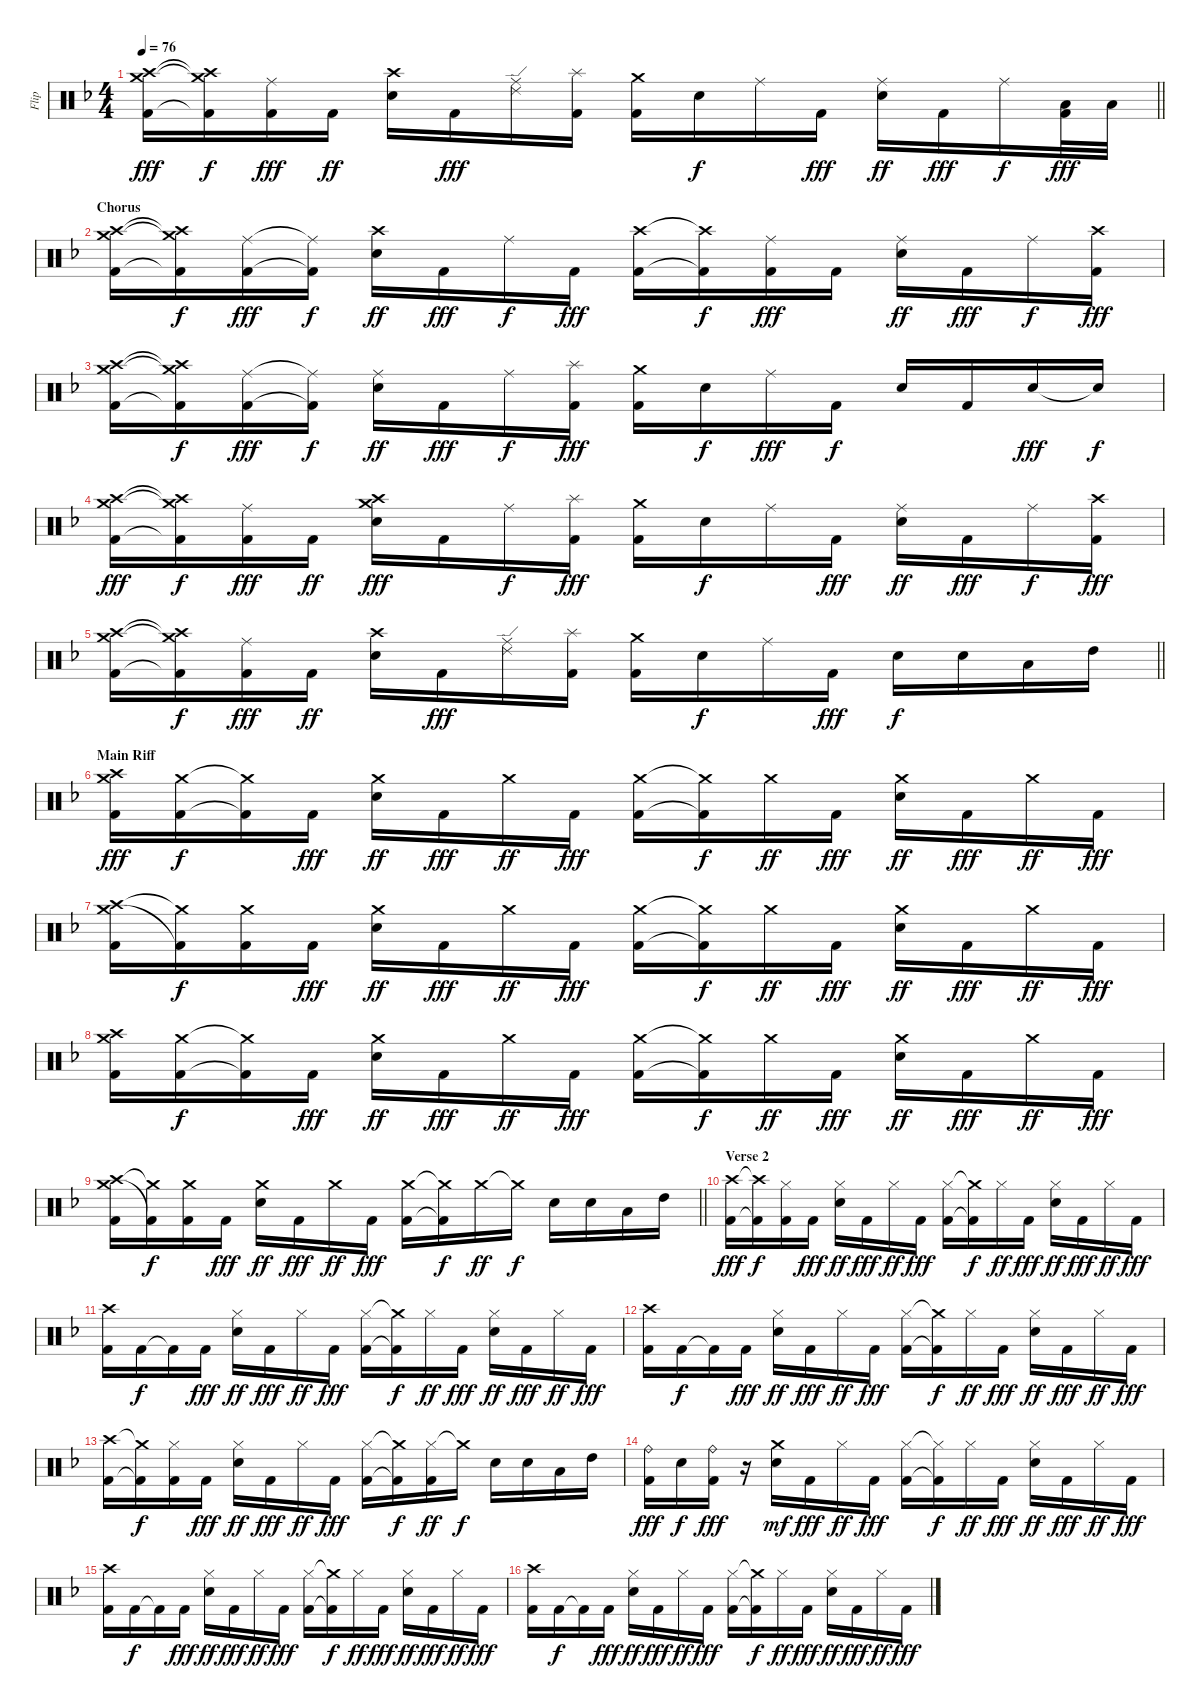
\track ("Flip" "Flip") {instrument percussion}
\staff {score}
\articulation defaults
\ts (4 4)
\tempo 76
\clef neutral
\barLineRight lightlight
\ks f
("Crash medium (hit)" "Crash high (hit)" "Kick (hit) 2").16{dy fff} ("Crash medium (hit)"{t} "Crash high (hit)"{t} "Kick (hit) 2"{t}).16{dy f} ("Ride (middle)" "Kick (hit) 2").16{dy fff} "Kick (hit) 2".16{dy ff} ("Crash high (hit)" "Snare (hit) 2").16 "Kick (hit) 2".16{dy fff} ("Ride (middle)" "Ride (edge) 2").16 ("Splash (hit)" "Kick (hit) 2").16 ("Crash medium (hit)" "Kick (hit) 2").16 "Snare (hit) 2".16{dy f} "Ride (middle)".16 "Kick (hit) 2".16{dy fff} ("Ride (middle)" "Snare (hit) 2").16{dy ff} "Kick (hit) 2".16{dy fff} "Ride (middle)".16{dy f} ("Low Tom (hit)" "Kick (hit) 2").32{dy fff} "Low Tom (hit)".32 |
\section ("" "Chorus")
("Crash medium (hit)" "Crash high (hit)" "Kick (hit) 2").16 ("Crash medium (hit)"{t} "Crash high (hit)"{t} "Kick (hit) 2"{t}).16{dy f} ("Ride (middle)" "Kick (hit) 2").16{dy fff} ("Ride (middle)"{t} "Kick (hit) 2"{t}).16{dy f} ("Crash high (hit)" "Snare (hit) 2").16{dy ff} "Kick (hit) 2".16{dy fff} "Ride (middle)".16{dy f} "Kick (hit) 2".16{dy fff} ("Crash high (hit)" "Kick (hit) 2").16 ("Crash high (hit)"{t} "Kick (hit) 2"{t}).16{dy f} ("Ride (middle)" "Kick (hit) 2").16{dy fff} "Kick (hit) 2".16 ("Ride (middle)" "Snare (hit) 2").16{dy ff} "Kick (hit) 2".16{dy fff} "Ride (middle)".16{dy f} ("Crash high (hit)" "Kick (hit) 2").16{dy fff} |
("Crash medium (hit)" "Crash high (hit)" "Kick (hit) 2").16 ("Crash medium (hit)"{t} "Crash high (hit)"{t} "Kick (hit) 2"{t}).16{dy f} ("Ride (middle)" "Kick (hit) 2").16{dy fff} ("Ride (middle)"{t} "Kick (hit) 2"{t}).16{dy f} ("Ride (middle)" "Snare (hit) 2").16{dy ff} "Kick (hit) 2".16{dy fff} "Ride (middle)".16{dy f} ("Splash (hit)" "Kick (hit) 2").16{dy fff} ("Crash medium (hit)" "Kick (hit) 2").16 "Snare (hit) 2".16{dy f} "Ride (middle)".16{dy fff} "Kick (hit) 2".16{dy f} "Snare (hit) 2".16 "Kick (hit) 2".16 "Snare (hit) 2".16{dy fff} "Snare (hit) 2"{t}.16{dy f} |
("Crash medium (hit)" "Crash high (hit)" "Kick (hit) 2").16{dy fff} ("Crash medium (hit)"{t} "Crash high (hit)"{t} "Kick (hit) 2"{t}).16{dy f} ("Ride (middle)" "Kick (hit) 2").16{dy fff} "Kick (hit) 2".16{dy ff} ("Crash high (hit)" "Crash medium (hit)" "Snare (hit) 2").16{dy fff} "Kick (hit) 2".16 "Ride (middle)".16{dy f} ("Splash (hit)" "Kick (hit) 2").16{dy fff} ("Crash medium (hit)" "Kick (hit) 2").16 "Snare (hit) 2".16{dy f} "Ride (middle)".16 "Kick (hit) 2".16{dy fff} ("Ride (middle)" "Snare (hit) 2").16{dy ff} "Kick (hit) 2".16{dy fff} "Ride (middle)".16{dy f} ("Crash high (hit)" "Kick (hit) 2").16{dy fff} |
\barLineRight lightlight
("Crash medium (hit)" "Crash high (hit)" "Kick (hit) 2").16 ("Crash medium (hit)"{t} "Crash high (hit)"{t} "Kick (hit) 2"{t}).16{dy f} ("Ride (middle)" "Kick (hit) 2").16{dy fff} "Kick (hit) 2".16{dy ff} ("Crash high (hit)" "Snare (hit) 2").16 "Kick (hit) 2".16{dy fff} ("Ride (middle)" "Ride (edge) 2").16 ("Splash (hit)" "Kick (hit) 2").16 ("Crash medium (hit)" "Kick (hit) 2").16 "Snare (hit) 2".16{dy f} "Ride (middle)".16 "Kick (hit) 2".16{dy fff} "Snare (hit) 2".16{dy f} "Snare (hit) 2".16 "Low Tom (hit)".16 "High Tom (hit)".16 |
\section ("" "Main Riff")
("Crash high (hit)" "Crash medium (hit)" "Kick (hit) 2").16{dy fff} ("Crash medium (hit)" "Kick (hit) 2").16{dy f} ("Crash medium (hit)"{t} "Kick (hit) 2"{t}).16 "Kick (hit) 2".16{dy fff} ("Crash medium (hit)" "Snare (hit) 2").16{dy ff} "Kick (hit) 2".16{dy fff} "Crash medium (hit)".16{dy ff} "Kick (hit) 2".16{dy fff} ("Crash medium (hit)" "Kick (hit) 2").16 ("Crash medium (hit)"{t} "Kick (hit) 2"{t}).16{dy f} "Crash medium (hit)".16{dy ff} "Kick (hit) 2".16{dy fff} ("Crash medium (hit)" "Snare (hit) 2").16{dy ff} "Kick (hit) 2".16{dy fff} "Crash medium (hit)".16{dy ff} "Kick (hit) 2".16{dy fff} |
("Crash high (hit)" "Crash medium (hit)" "Kick (hit) 2").16 ("Crash medium (hit)"{t} "Kick (hit) 2"{t}).16{dy f} ("Crash medium (hit)" "Kick (hit) 2").16 "Kick (hit) 2".16{dy fff} ("Crash medium (hit)" "Snare (hit) 2").16{dy ff} "Kick (hit) 2".16{dy fff} "Crash medium (hit)".16{dy ff} "Kick (hit) 2".16{dy fff} ("Crash medium (hit)" "Kick (hit) 2").16 ("Crash medium (hit)"{t} "Kick (hit) 2"{t}).16{dy f} "Crash medium (hit)".16{dy ff} "Kick (hit) 2".16{dy fff} ("Crash medium (hit)" "Snare (hit) 2").16{dy ff} "Kick (hit) 2".16{dy fff} "Crash medium (hit)".16{dy ff} "Kick (hit) 2".16{dy fff} |
("Crash high (hit)" "Crash medium (hit)" "Kick (hit) 2").16 ("Crash medium (hit)" "Kick (hit) 2").16{dy f} ("Crash medium (hit)"{t} "Kick (hit) 2"{t}).16 "Kick (hit) 2".16{dy fff} ("Crash medium (hit)" "Snare (hit) 2").16{dy ff} "Kick (hit) 2".16{dy fff} "Crash medium (hit)".16{dy ff} "Kick (hit) 2".16{dy fff} ("Crash medium (hit)" "Kick (hit) 2").16 ("Crash medium (hit)"{t} "Kick (hit) 2"{t}).16{dy f} "Crash medium (hit)".16{dy ff} "Kick (hit) 2".16{dy fff} ("Crash medium (hit)" "Snare (hit) 2").16{dy ff} "Kick (hit) 2".16{dy fff} "Crash medium (hit)".16{dy ff} "Kick (hit) 2".16{dy fff} |
\barLineRight lightlight
("Crash high (hit)" "Crash medium (hit)" "Kick (hit) 2").16 ("Crash medium (hit)"{t} "Kick (hit) 2"{t}).16{dy f} ("Crash medium (hit)" "Kick (hit) 2").16 "Kick (hit) 2".16{dy fff} ("Crash medium (hit)" "Snare (hit) 2").16{dy ff} "Kick (hit) 2".16{dy fff} "Crash medium (hit)".16{dy ff} "Kick (hit) 2".16{dy fff} ("Crash medium (hit)" "Kick (hit) 2").16 ("Crash medium (hit)"{t} "Kick (hit) 2"{t}).16{dy f} "Crash medium (hit)".16{dy ff} "Crash medium (hit)"{t}.16{dy f} "Snare (hit) 2".16 "Snare (hit) 2".16 "Low Tom (hit)".16 "High Tom (hit)".16 |
\section ("" "Verse 2")
("Crash high (hit)" "Kick (hit) 2").16{dy fff} ("Crash high (hit)"{t} "Kick (hit) 2"{t}).16{dy f} ("Hi-Hat (closed)" "Kick (hit) 2").16 "Kick (hit) 2".16{dy fff} ("Hi-Hat (closed)" "Snare (hit) 2").16{dy ff} "Kick (hit) 2".16{dy fff} "Hi-Hat (closed)".16{dy ff} "Kick (hit) 2".16{dy fff} ("Hi-Hat (closed)" "Kick (hit) 2").16 ("Crash medium (hit)"{t} "Kick (hit) 2"{t}).16{dy f} "Hi-Hat (closed)".16{dy ff} "Kick (hit) 2".16{dy fff} ("Hi-Hat (closed)" "Snare (hit) 2").16{dy ff} "Kick (hit) 2".16{dy fff} "Hi-Hat (closed)".16{dy ff} "Kick (hit) 2".16{dy fff} |
("Crash high (hit)" "Kick (hit) 2").16 "Kick (hit) 2".16{dy f} "Kick (hit) 2"{t}.16 "Kick (hit) 2".16{dy fff} ("Hi-Hat (closed)" "Snare (hit) 2").16{dy ff} "Kick (hit) 2".16{dy fff} "Hi-Hat (closed)".16{dy ff} "Kick (hit) 2".16{dy fff} ("Hi-Hat (closed)" "Kick (hit) 2").16 ("Crash medium (hit)"{t} "Kick (hit) 2"{t}).16{dy f} "Hi-Hat (closed)".16{dy ff} "Kick (hit) 2".16{dy fff} ("Hi-Hat (closed)" "Snare (hit) 2").16{dy ff} "Kick (hit) 2".16{dy fff} "Hi-Hat (closed)".16{dy ff} "Kick (hit) 2".16{dy fff} |
("Crash high (hit)" "Kick (hit) 2").16 "Kick (hit) 2".16{dy f} "Kick (hit) 2"{t}.16 "Kick (hit) 2".16{dy fff} ("Hi-Hat (closed)" "Snare (hit) 2").16{dy ff} "Kick (hit) 2".16{dy fff} "Hi-Hat (closed)".16{dy ff} "Kick (hit) 2".16{dy fff} ("Hi-Hat (closed)" "Kick (hit) 2").16 ("Crash medium (hit)"{t} "Kick (hit) 2"{t}).16{dy f} "Hi-Hat (closed)".16{dy ff} "Kick (hit) 2".16{dy fff} ("Hi-Hat (closed)" "Snare (hit) 2").16{dy ff} "Kick (hit) 2".16{dy fff} "Hi-Hat (closed)".16{dy ff} "Kick (hit) 2".16{dy fff} |
("Crash high (hit)" "Kick (hit) 2").16 ("Crash medium (hit)"{t} "Kick (hit) 2"{t}).16{dy f} ("Hi-Hat (closed)" "Kick (hit) 2").16 "Kick (hit) 2".16{dy fff} ("Hi-Hat (closed)" "Snare (hit) 2").16{dy ff} "Kick (hit) 2".16{dy fff} "Hi-Hat (closed)".16{dy ff} "Kick (hit) 2".16{dy fff} ("Hi-Hat (closed)" "Kick (hit) 2").16 ("Crash medium (hit)"{t} "Kick (hit) 2"{t}).16{dy f} ("Hi-Hat (closed)" "Kick (hit) 2").16{dy ff} "Crash medium (hit)"{t}.16{dy f} "Snare (hit) 2".16 "Snare (hit) 2".16 "Low Tom (hit)".16 "High Tom (hit)".16 |
("Ride (bell)" "Kick (hit) 2").16{dy fff} "Snare (hit) 2".16{dy f} ("Ride (bell)" "Kick (hit) 2").16{dy fff} r.16 ("Crash medium (hit)" "Snare (hit) 2").16{dy mf} "Kick (hit) 2".16{dy fff} "Hi-Hat (closed)".16{dy ff} "Kick (hit) 2".16{dy fff} ("Hi-Hat (closed)" "Kick (hit) 2").16 ("Hi-Hat (closed)"{t} "Kick (hit) 2"{t}).16{dy f} "Hi-Hat (closed)".16{dy ff} "Kick (hit) 2".16{dy fff} ("Hi-Hat (closed)" "Snare (hit) 2").16{dy ff} "Kick (hit) 2".16{dy fff} "Hi-Hat (closed)".16{dy ff} "Kick (hit) 2".16{dy fff} |
("Crash high (hit)" "Kick (hit) 2").16 "Kick (hit) 2".16{dy f} "Kick (hit) 2"{t}.16 "Kick (hit) 2".16{dy fff} ("Hi-Hat (closed)" "Snare (hit) 2").16{dy ff} "Kick (hit) 2".16{dy fff} "Hi-Hat (closed)".16{dy ff} "Kick (hit) 2".16{dy fff} ("Hi-Hat (closed)" "Kick (hit) 2").16 ("Crash medium (hit)"{t} "Kick (hit) 2"{t}).16{dy f} "Hi-Hat (closed)".16{dy ff} "Kick (hit) 2".16{dy fff} ("Hi-Hat (closed)" "Snare (hit) 2").16{dy ff} "Kick (hit) 2".16{dy fff} "Hi-Hat (closed)".16{dy ff} "Kick (hit) 2".16{dy fff} |
("Crash high (hit)" "Kick (hit) 2").16 "Kick (hit) 2".16{dy f} "Kick (hit) 2"{t}.16 "Kick (hit) 2".16{dy fff} ("Hi-Hat (closed)" "Snare (hit) 2").16{dy ff} "Kick (hit) 2".16{dy fff} "Hi-Hat (closed)".16{dy ff} "Kick (hit) 2".16{dy fff} ("Hi-Hat (closed)" "Kick (hit) 2").16 ("Crash medium (hit)"{t} "Kick (hit) 2"{t}).16{dy f} "Hi-Hat (closed)".16{dy ff} "Kick (hit) 2".16{dy fff} ("Hi-Hat (closed)" "Snare (hit) 2").16{dy ff} "Kick (hit) 2".16{dy fff} "Hi-Hat (closed)".16{dy ff} "Kick (hit) 2".16{dy fff}
